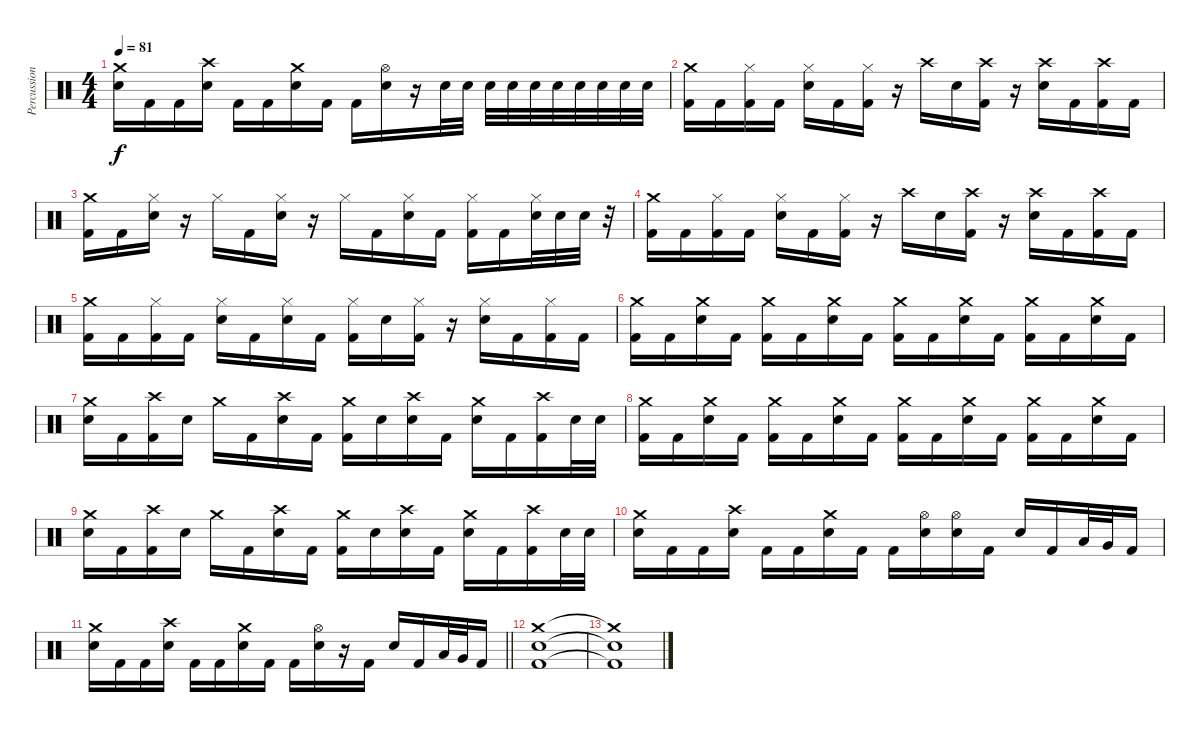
\track ("Percussions" "Percussion") {instrument percussion}
\staff {score}
\articulation defaults
\ts (4 4)
\tempo 81
\clef neutral
\ks c
("Crash medium (hit)" "Electric Snare (hit)").16{dy f} "Kick (hit) 2".16 "Kick (hit) 2".16 ("Crash high (hit)" "Electric Snare (hit)").16 "Kick (hit) 2".16 "Kick (hit) 2".16 ("Crash medium (hit)" "Electric Snare (hit)").16 "Kick (hit) 2".16 "Kick (hit) 2".16 ("Hi-Hat (open)" "Electric Snare (hit)").16 r.16 "Electric Snare (hit)".32 "Electric Snare (hit)".32 "Electric Snare (hit)".32 "Electric Snare (hit)".32 "Electric Snare (hit)".32 "Electric Snare (hit)".32 "Electric Snare (hit)".32 "Electric Snare (hit)".32 "Electric Snare (hit)".32 "Electric Snare (hit)".32 |
("Crash medium (hit)" "Kick (hit) 2").16 "Kick (hit) 2".16 ("Hi-Hat (closed)" "Kick (hit) 2").16 "Kick (hit) 2".16 ("Hi-Hat (closed)" "Electric Snare (hit)").16 "Kick (hit) 2".16 ("Hi-Hat (closed)" "Kick (hit) 2").16 r.16 "Crash high (hit)".16 "Electric Snare (hit)".16 ("Crash high (hit)" "Kick (hit) 2").16 r.16 ("Crash high (hit)" "Electric Snare (hit)").16 "Kick (hit) 2".16 ("Crash high (hit)" "Kick (hit) 2").16 "Kick (hit) 2".16 |
("Crash medium (hit)" "Kick (hit) 2").16 "Kick (hit) 2".16 ("Hi-Hat (closed)" "Electric Snare (hit)").16 r.16 "Hi-Hat (closed)".16 "Kick (hit) 2".16 ("Hi-Hat (closed)" "Electric Snare (hit)").16 r.16 "Hi-Hat (closed)".16 "Kick (hit) 2".16 ("Hi-Hat (closed)" "Electric Snare (hit)").16 "Kick (hit) 2".16 ("Hi-Hat (closed)" "Kick (hit) 2").16 "Kick (hit) 2".16 ("Hi-Hat (closed)" "Electric Snare (hit)").32 "Electric Snare (hit)".32 "Electric Snare (hit)".32 r.32 |
("Crash medium (hit)" "Kick (hit) 2").16 "Kick (hit) 2".16 ("Hi-Hat (closed)" "Kick (hit) 2").16 "Kick (hit) 2".16 ("Hi-Hat (closed)" "Electric Snare (hit)").16 "Kick (hit) 2".16 ("Hi-Hat (closed)" "Kick (hit) 2").16 r.16 "Crash high (hit)".16 "Electric Snare (hit)".16 ("Crash high (hit)" "Kick (hit) 2").16 r.16 ("Crash high (hit)" "Electric Snare (hit)").16 "Kick (hit) 2".16 ("Crash high (hit)" "Kick (hit) 2").16 "Kick (hit) 2".16 |
("Crash medium (hit)" "Kick (hit) 2").16 "Kick (hit) 2".16 ("Hi-Hat (closed)" "Kick (hit) 2").16 "Kick (hit) 2".16 ("Hi-Hat (closed)" "Electric Snare (hit)").16 "Kick (hit) 2".16 ("Hi-Hat (closed)" "Electric Snare (hit)").16 "Kick (hit) 2".16 ("Hi-Hat (closed)" "Kick (hit) 2").16 "Electric Snare (hit)".16 ("Hi-Hat (closed)" "Kick (hit) 2").16 r.16 ("Hi-Hat (closed)" "Electric Snare (hit)").16 "Kick (hit) 2".16 ("Hi-Hat (closed)" "Kick (hit) 2").16 "Kick (hit) 2".16 |
("Crash medium (hit)" "Kick (hit) 2").16 "Kick (hit) 2".16 ("Crash medium (hit)" "Electric Snare (hit)").16 "Kick (hit) 2".16 ("Crash medium (hit)" "Kick (hit) 2").16 "Kick (hit) 2".16 ("Crash medium (hit)" "Electric Snare (hit)").16 "Kick (hit) 2".16 ("Crash medium (hit)" "Kick (hit) 2").16 "Kick (hit) 2".16 ("Crash medium (hit)" "Electric Snare (hit)").16 "Kick (hit) 2".16 ("Crash medium (hit)" "Kick (hit) 2").16 "Kick (hit) 2".16 ("Crash medium (hit)" "Electric Snare (hit)").16 "Kick (hit) 2".16 |
("Crash medium (hit)" "Electric Snare (hit)").16 "Kick (hit) 2".16 ("Crash high (hit)" "Kick (hit) 2").16 "Electric Snare (hit)".16 "Crash medium (hit)".16 "Kick (hit) 2".16 ("Crash high (hit)" "Electric Snare (hit)").16 "Kick (hit) 2".16 ("Crash medium (hit)" "Kick (hit) 2").16 "Electric Snare (hit)".16 ("Crash high (hit)" "Electric Snare (hit)").16 "Kick (hit) 2".16 ("Crash medium (hit)" "Electric Snare (hit)").16 "Kick (hit) 2".16 ("Crash high (hit)" "Kick (hit) 2").16 "Electric Snare (hit)".32 "Electric Snare (hit)".32 |
("Crash medium (hit)" "Kick (hit) 2").16 "Kick (hit) 2".16 ("Crash medium (hit)" "Electric Snare (hit)").16 "Kick (hit) 2".16 ("Crash medium (hit)" "Kick (hit) 2").16 "Kick (hit) 2".16 ("Crash medium (hit)" "Electric Snare (hit)").16 "Kick (hit) 2".16 ("Crash medium (hit)" "Kick (hit) 2").16 "Kick (hit) 2".16 ("Crash medium (hit)" "Electric Snare (hit)").16 "Kick (hit) 2".16 ("Crash medium (hit)" "Kick (hit) 2").16 "Kick (hit) 2".16 ("Crash medium (hit)" "Electric Snare (hit)").16 "Kick (hit) 2".16 |
("Crash medium (hit)" "Electric Snare (hit)").16 "Kick (hit) 2".16 ("Crash high (hit)" "Kick (hit) 2").16 "Electric Snare (hit)".16 "Crash medium (hit)".16 "Kick (hit) 2".16 ("Crash high (hit)" "Electric Snare (hit)").16 "Kick (hit) 2".16 ("Crash medium (hit)" "Kick (hit) 2").16 "Electric Snare (hit)".16 ("Crash high (hit)" "Electric Snare (hit)").16 "Kick (hit) 2".16 ("Crash medium (hit)" "Electric Snare (hit)").16 "Kick (hit) 2".16 ("Crash high (hit)" "Kick (hit) 2").16 "Electric Snare (hit)".32 "Electric Snare (hit)".32 |
("Crash medium (hit)" "Electric Snare (hit)").16 "Kick (hit) 2".16 "Kick (hit) 2".16 ("Crash high (hit)" "Electric Snare (hit)").16 "Kick (hit) 2".16 "Kick (hit) 2".16 ("Crash medium (hit)" "Electric Snare (hit)").16 "Kick (hit) 2".16 "Kick (hit) 2".16 ("Hi-Hat (open)" "Electric Snare (hit)").16 ("Hi-Hat (open)" "Electric Snare (hit)").16 "Kick (hit) 2".16 "Electric Snare (hit)".16 "Kick (hit) 2".16 "Low Floor Tom (hit)".32 "Very Low Tom (hit)".32 "Kick (hit) 2".16 |
\barLineRight lightlight
("Crash medium (hit)" "Electric Snare (hit)").16 "Kick (hit) 2".16 "Kick (hit) 2".16 ("Crash high (hit)" "Electric Snare (hit)").16 "Kick (hit) 2".16 "Kick (hit) 2".16 ("Crash medium (hit)" "Electric Snare (hit)").16 "Kick (hit) 2".16 "Kick (hit) 2".16 ("Hi-Hat (open)" "Electric Snare (hit)").16 r.16 "Kick (hit) 2".16 "Electric Snare (hit)".16 "Kick (hit) 2".16 "Low Floor Tom (hit)".32 "Very Low Tom (hit)".32 "Kick (hit) 2".16 |
("Crash medium (hit)" "Electric Snare (hit)" "Kick (hit) 2").1 |
("Crash medium (hit)"{t} "Electric Snare (hit)"{t} "Kick (hit) 2"{t}).1
